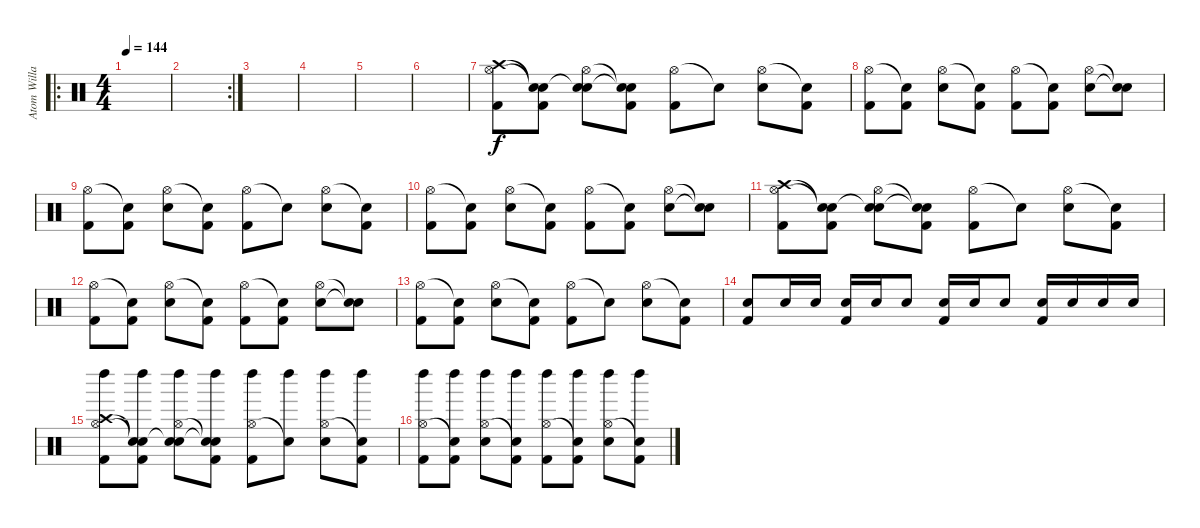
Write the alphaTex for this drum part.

\track ("Atom Willard (Drums)" "Atom Willa") {instrument percussion}
\staff {score}
\articulation defaults
\ro
\ts (4 4)
\tempo 144
\clef neutral
\ks c
|
\rc 2
|
|
|
|
|
("Crash high (hit)" "Hi-Hat (open)" "Kick (hit) 2").8 ("Snare (hit)"{t} "Snare (hit)"{t} "Kick (hit) 2").8 ("Snare (hit)"{t} "Hi-Hat (open)" "Electric Snare (hit)").8 ("Snare (hit)"{t} "Snare (hit)"{t} "Kick (hit) 2").8 ("Hi-Hat (open)" "Kick (hit) 2").8 "Snare (hit)"{t}.8 ("Hi-Hat (open)" "Electric Snare (hit)").8 ("Snare (hit)"{t} "Kick (hit) 2").8 |
("Hi-Hat (open)" "Kick (hit) 2").8 ("Snare (hit)"{t} "Kick (hit) 2").8 ("Hi-Hat (open)" "Electric Snare (hit)").8 ("Snare (hit)"{t} "Kick (hit) 2").8 ("Hi-Hat (open)" "Kick (hit) 2").8 ("Snare (hit)"{t} "Kick (hit) 2").8 ("Hi-Hat (open)" "Electric Snare (hit)").8 ("Snare (hit)"{t} "Snare (hit)"{t}).8 |
("Hi-Hat (open)" "Kick (hit) 2").8 ("Snare (hit)"{t} "Kick (hit) 2").8 ("Hi-Hat (open)" "Electric Snare (hit)").8 ("Snare (hit)"{t} "Kick (hit) 2").8 ("Hi-Hat (open)" "Kick (hit) 2").8 "Snare (hit)"{t}.8 ("Hi-Hat (open)" "Electric Snare (hit)").8 ("Snare (hit)"{t} "Kick (hit) 2").8 |
("Hi-Hat (open)" "Kick (hit) 2").8 ("Snare (hit)"{t} "Kick (hit) 2").8 ("Hi-Hat (open)" "Electric Snare (hit)").8 ("Snare (hit)"{t} "Kick (hit) 2").8 ("Hi-Hat (open)" "Kick (hit) 2").8 ("Snare (hit)"{t} "Kick (hit) 2").8 ("Hi-Hat (open)" "Electric Snare (hit)").8 ("Snare (hit)"{t} "Snare (hit)"{t}).8 |
("Crash high (hit)" "Hi-Hat (open)" "Kick (hit) 2").8 ("Snare (hit)"{t} "Snare (hit)"{t} "Kick (hit) 2").8 ("Snare (hit)"{t} "Hi-Hat (open)" "Electric Snare (hit)").8 ("Snare (hit)"{t} "Snare (hit)"{t} "Kick (hit) 2").8 ("Hi-Hat (open)" "Kick (hit) 2").8 "Snare (hit)"{t}.8 ("Hi-Hat (open)" "Electric Snare (hit)").8 ("Snare (hit)"{t} "Kick (hit) 2").8 |
("Hi-Hat (open)" "Kick (hit) 2").8 ("Snare (hit)"{t} "Kick (hit) 2").8 ("Hi-Hat (open)" "Electric Snare (hit)").8 ("Snare (hit)"{t} "Kick (hit) 2").8 ("Hi-Hat (open)" "Kick (hit) 2").8 ("Snare (hit)"{t} "Kick (hit) 2").8 ("Hi-Hat (open)" "Electric Snare (hit)").8 ("Snare (hit)"{t} "Snare (hit)"{t}).8 |
("Hi-Hat (open)" "Kick (hit) 2").8 ("Snare (hit)"{t} "Kick (hit) 2").8 ("Hi-Hat (open)" "Electric Snare (hit)").8 ("Snare (hit)"{t} "Kick (hit) 2").8 ("Hi-Hat (open)" "Kick (hit) 2").8 "Snare (hit)"{t}.8 ("Hi-Hat (open)" "Electric Snare (hit)").8 ("Snare (hit)"{t} "Kick (hit) 2").8 |
("Electric Snare (hit)" "Kick (hit) 2").8 "Electric Snare (hit)".16 "Electric Snare (hit)".16 ("Electric Snare (hit)" "Kick (hit) 2").16 "Electric Snare (hit)".16 "Electric Snare (hit)".8 ("Electric Snare (hit)" "Kick (hit) 2").16 "Electric Snare (hit)".16 "Electric Snare (hit)".8 ("Electric Snare (hit)" "Kick (hit) 2").16 "Electric Snare (hit)".16 "Electric Snare (hit)".16 "Electric Snare (hit)".16 |
("Crash high (hit)" "Left Maraca (hit)" "Hi-Hat (open)" "Kick (hit) 2").8 ("Snare (hit)"{t} "Left Maraca (hit)" "Snare (hit)"{t} "Kick (hit) 2").8 ("Snare (hit)"{t} "Left Maraca (hit)" "Hi-Hat (open)" "Electric Snare (hit)").8 ("Snare (hit)"{t} "Left Maraca (hit)" "Snare (hit)"{t} "Kick (hit) 2").8 ("Left Maraca (hit)" "Hi-Hat (open)" "Kick (hit) 2").8 ("Left Maraca (hit)" "Snare (hit)"{t}).8 ("Left Maraca (hit)" "Hi-Hat (open)" "Electric Snare (hit)").8 ("Left Maraca (hit)" "Snare (hit)"{t} "Kick (hit) 2").8 |
("Left Maraca (hit)" "Hi-Hat (open)" "Kick (hit) 2").8 ("Left Maraca (hit)" "Snare (hit)"{t} "Kick (hit) 2").8 ("Left Maraca (hit)" "Hi-Hat (open)" "Electric Snare (hit)").8 ("Left Maraca (hit)" "Snare (hit)"{t} "Kick (hit) 2").8 ("Left Maraca (hit)" "Hi-Hat (open)" "Kick (hit) 2").8 ("Left Maraca (hit)" "Snare (hit)"{t} "Kick (hit) 2").8 ("Left Maraca (hit)" "Hi-Hat (open)" "Electric Snare (hit)").8 ("Left Maraca (hit)" "Snare (hit)"{t} "Kick (hit) 2").8
